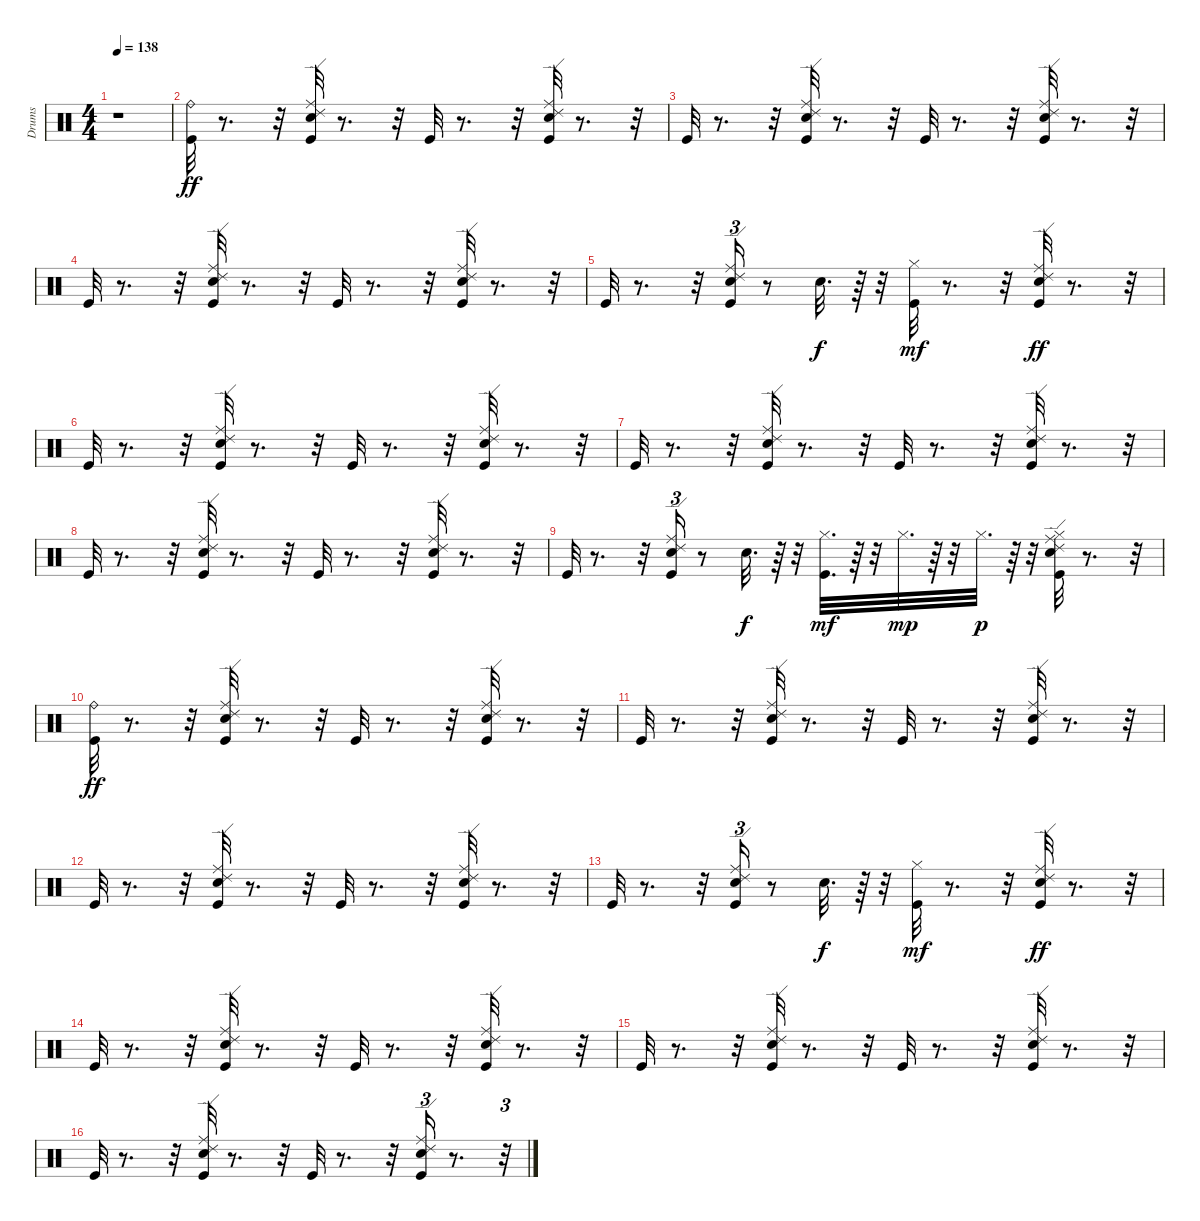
\track ("Drums" "Drums") {instrument percussion}
\staff {score}
\articulation defaults
\ts (4 4)
\tempo 138
\clef neutral
\ks c
r.1{dy ff} |
("Ride (bell)" "Kick (hit)").32 r.8{d} r.32 ("Hand Clap (hit)" "Kick (hit)" "Ride (middle)" "Ride (edge) 2").32 r.8{d} r.32 "Kick (hit)".32 r.8{d} r.32 ("Ride (middle)" "Ride (edge) 2" "Hand Clap (hit)" "Kick (hit)").32 r.8{d} r.32 |
"Kick (hit)".32 r.8{d} r.32 ("Ride (middle)" "Ride (edge) 2" "Kick (hit)" "Hand Clap (hit)").32 r.8{d} r.32 "Kick (hit)".32 r.8{d} r.32 ("Ride (middle)" "Ride (edge) 2" "Kick (hit)" "Hand Clap (hit)").32 r.8{d} r.32 |
"Kick (hit)".32 r.8{d} r.32 ("Kick (hit)" "Hand Clap (hit)" "Ride (middle)" "Ride (edge) 2").32 r.8{d} r.32 "Kick (hit)".32 r.8{d} r.32 ("Ride (middle)" "Ride (edge) 2" "Hand Clap (hit)" "Kick (hit)").32 r.8{d} r.32 |
"Kick (hit)".32 r.8{d} r.32 ("Ride (middle)" "Ride (edge) 2" "Kick (hit)" "Hand Clap (hit)").16{tu (3 2)} r.8 "Hand Clap (hit)".32{d dy f} r.64 r.32 ("Kick (hit)" "Hi-Hat (closed)").32{dy mf} r.8{d} r.32 ("Ride (middle)" "Ride (edge) 2" "Hand Clap (hit)" "Kick (hit)").32{dy ff} r.8{d} r.32 |
"Kick (hit)".32 r.8{d} r.32 ("Hand Clap (hit)" "Kick (hit)" "Ride (middle)" "Ride (edge) 2").32 r.8{d} r.32 "Kick (hit)".32 r.8{d} r.32 ("Ride (middle)" "Ride (edge) 2" "Hand Clap (hit)" "Kick (hit)").32 r.8{d} r.32 |
"Kick (hit)".32 r.8{d} r.32 ("Ride (middle)" "Ride (edge) 2" "Kick (hit)" "Hand Clap (hit)").32 r.8{d} r.32 "Kick (hit)".32 r.8{d} r.32 ("Ride (middle)" "Ride (edge) 2" "Kick (hit)" "Hand Clap (hit)").32 r.8{d} r.32 |
"Kick (hit)".32 r.8{d} r.32 ("Kick (hit)" "Hand Clap (hit)" "Ride (middle)" "Ride (edge) 2").32 r.8{d} r.32 "Kick (hit)".32 r.8{d} r.32 ("Ride (middle)" "Ride (edge) 2" "Hand Clap (hit)" "Kick (hit)").32 r.8{d} r.32 |
"Kick (hit)".32 r.8{d} r.32 ("Ride (middle)" "Ride (edge) 2" "Kick (hit)" "Hand Clap (hit)").16{tu (3 2)} r.8 "Hand Clap (hit)".32{d dy f} r.64 r.32 ("Kick (hit)" "Hi-Hat (closed)").32{d dy mf} r.64 r.32 "Hi-Hat (closed)".32{d dy mp} r.64 r.32 "Hi-Hat (closed)".32{d dy p} r.64 r.32 ("Ride (middle)" "Ride (edge) 2" "Hand Clap (hit)" "Kick (hit)" "Hi-Hat (closed)").32 r.8{d} r.32 |
("Ride (bell)" "Kick (hit)").32{dy ff} r.8{d} r.32 ("Hand Clap (hit)" "Kick (hit)" "Ride (middle)" "Ride (edge) 2").32 r.8{d} r.32 "Kick (hit)".32 r.8{d} r.32 ("Ride (middle)" "Ride (edge) 2" "Hand Clap (hit)" "Kick (hit)").32 r.8{d} r.32 |
"Kick (hit)".32 r.8{d} r.32 ("Ride (middle)" "Ride (edge) 2" "Kick (hit)" "Hand Clap (hit)").32 r.8{d} r.32 "Kick (hit)".32 r.8{d} r.32 ("Ride (middle)" "Ride (edge) 2" "Kick (hit)" "Hand Clap (hit)").32 r.8{d} r.32 |
"Kick (hit)".32 r.8{d} r.32 ("Kick (hit)" "Hand Clap (hit)" "Ride (middle)" "Ride (edge) 2").32 r.8{d} r.32 "Kick (hit)".32 r.8{d} r.32 ("Ride (middle)" "Ride (edge) 2" "Hand Clap (hit)" "Kick (hit)").32 r.8{d} r.32 |
"Kick (hit)".32 r.8{d} r.32 ("Ride (middle)" "Ride (edge) 2" "Kick (hit)" "Hand Clap (hit)").16{tu (3 2)} r.8 "Hand Clap (hit)".32{d dy f} r.64 r.32 ("Kick (hit)" "Hi-Hat (closed)").32{dy mf} r.8{d} r.32 ("Ride (middle)" "Ride (edge) 2" "Hand Clap (hit)" "Kick (hit)").32{dy ff} r.8{d} r.32 |
"Kick (hit)".32 r.8{d} r.32 ("Hand Clap (hit)" "Kick (hit)" "Ride (middle)" "Ride (edge) 2").32 r.8{d} r.32 "Kick (hit)".32 r.8{d} r.32 ("Ride (middle)" "Ride (edge) 2" "Hand Clap (hit)" "Kick (hit)").32 r.8{d} r.32 |
"Kick (hit)".32 r.8{d} r.32 ("Ride (middle)" "Ride (edge) 2" "Kick (hit)" "Hand Clap (hit)").32 r.8{d} r.32 "Kick (hit)".32 r.8{d} r.32 ("Ride (middle)" "Ride (edge) 2" "Kick (hit)" "Hand Clap (hit)").32 r.8{d} r.32 |
"Kick (hit)".32 r.8{d} r.32 ("Kick (hit)" "Hand Clap (hit)" "Ride (middle)" "Ride (edge) 2").32 r.8{d} r.32 "Kick (hit)".32 r.8{d} r.32 ("Ride (middle)" "Ride (edge) 2" "Hand Clap (hit)" "Kick (hit)").16{tu (3 2)} r.8{d} r.32{tu (3 2)}
